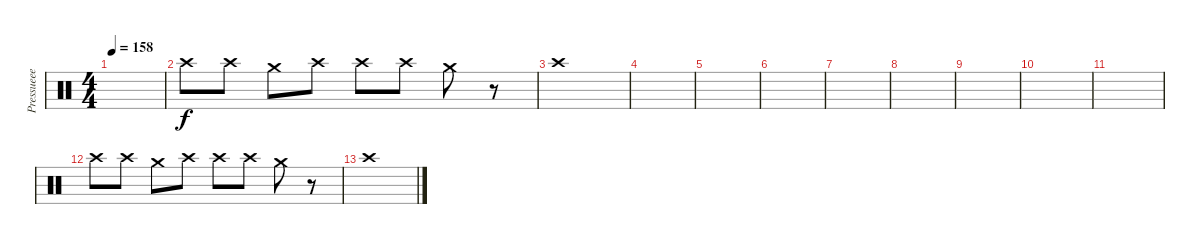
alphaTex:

\track ("Pressueee " "Pressueee ") {instrument percussion}
\staff {score}
\articulation defaults
\ts (4 4)
\tempo 158
\clef neutral
\ks c
|
"Crash high (hit)".8{dy f} "Crash high (hit)".8 "Crash medium (hit)".8 "Crash high (hit)".8 "Crash high (hit)".8 "Crash high (hit)".8 "Crash medium (hit)".8 r.8 |
"Crash high (hit)".1 |
|
|
|
|
|
|
|
|
"Crash high (hit)".8 "Crash high (hit)".8 "Crash medium (hit)".8 "Crash high (hit)".8 "Crash high (hit)".8 "Crash high (hit)".8 "Crash medium (hit)".8 r.8 |
"Crash high (hit)".1
